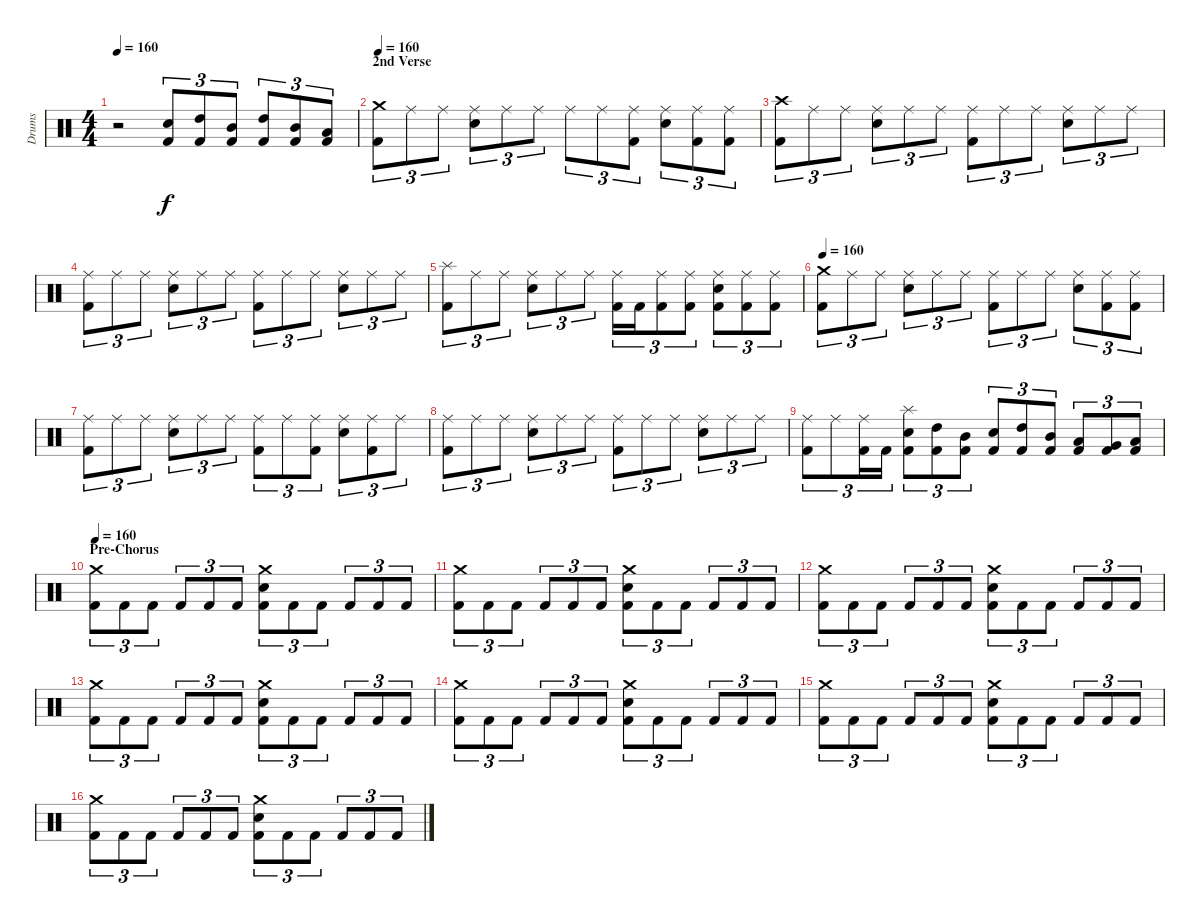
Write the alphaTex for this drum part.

\track ("Drums" "Drums") {instrument percussion}
\staff {score}
\articulation defaults
\ts (4 4)
\tempo 160
\clef neutral
\ks c
r.2{dy f} ("Kick (hit) 2" "Electric Snare (hit)").8{tu (3 2)} ("Kick (hit) 2" "High Tom (hit)").8{tu (3 2)} ("Kick (hit) 2" "Mid Tom (hit)").8{tu (3 2)} ("Kick (hit) 2" "High Tom (hit)").8{tu (3 2)} ("Kick (hit) 2" "Mid Tom (hit)").8{tu (3 2)} ("Kick (hit) 2" "Low Tom (hit)").8{tu (3 2)} |
\section ("" "2nd Verse")
\tempo 160
("Kick (hit) 2" "Crash medium (hit)").8{tu (3 2)} "Ride (middle)".8{tu (3 2)} "Ride (middle)".8{tu (3 2)} ("Electric Snare (hit)" "Ride (middle)").8{tu (3 2)} "Ride (middle)".8{tu (3 2)} "Ride (middle)".8{tu (3 2)} "Ride (middle)".8{tu (3 2)} "Ride (middle)".8{tu (3 2)} ("Kick (hit) 2" "Ride (middle)").8{tu (3 2)} ("Electric Snare (hit)" "Ride (middle)").8{tu (3 2)} ("Kick (hit) 2" "Ride (middle)").8{tu (3 2)} ("Kick (hit) 2" "Ride (middle)").8{tu (3 2)} |
("Kick (hit) 2" "Crash high (hit)").8{tu (3 2)} "Ride (middle)".8{tu (3 2)} "Ride (middle)".8{tu (3 2)} ("Electric Snare (hit)" "Ride (middle)").8{tu (3 2)} "Ride (middle)".8{tu (3 2)} "Ride (middle)".8{tu (3 2)} ("Kick (hit) 2" "Ride (middle)").8{tu (3 2)} "Ride (middle)".8{tu (3 2)} "Ride (middle)".8{tu (3 2)} ("Electric Snare (hit)" "Ride (middle)").8{tu (3 2)} "Ride (middle)".8{tu (3 2)} "Ride (middle)".8{tu (3 2)} |
("Kick (hit) 2" "Ride (middle)").8{tu (3 2)} "Ride (middle)".8{tu (3 2)} "Ride (middle)".8{tu (3 2)} ("Electric Snare (hit)" "Ride (middle)").8{tu (3 2)} "Ride (middle)".8{tu (3 2)} "Ride (middle)".8{tu (3 2)} ("Kick (hit) 2" "Ride (middle)").8{tu (3 2)} "Ride (middle)".8{tu (3 2)} "Ride (middle)".8{tu (3 2)} ("Electric Snare (hit)" "Ride (middle)").8{tu (3 2)} "Ride (middle)".8{tu (3 2)} "Ride (middle)".8{tu (3 2)} |
("Kick (hit) 2" "Splash (hit)").8{tu (3 2)} "Ride (middle)".8{tu (3 2)} "Ride (middle)".8{tu (3 2)} ("Electric Snare (hit)" "Ride (middle)").8{tu (3 2)} "Ride (middle)".8{tu (3 2)} "Ride (middle)".8{tu (3 2)} ("Kick (hit) 2" "Ride (middle)").16{tu (3 2)} "Kick (hit) 2".16{tu (3 2)} ("Kick (hit) 2" "Ride (middle)").8{tu (3 2)} ("Kick (hit) 2" "Ride (middle)").8{tu (3 2)} ("Kick (hit) 2" "Electric Snare (hit)" "Ride (middle)").8{tu (3 2)} ("Kick (hit) 2" "Ride (middle)").8{tu (3 2)} ("Kick (hit) 2" "Ride (middle)").8{tu (3 2)} |
\tempo 160
("Kick (hit) 2" "Crash medium (hit)").8{tu (3 2)} "Ride (middle)".8{tu (3 2)} "Ride (middle)".8{tu (3 2)} ("Electric Snare (hit)" "Ride (middle)").8{tu (3 2)} "Ride (middle)".8{tu (3 2)} "Ride (middle)".8{tu (3 2)} ("Kick (hit) 2" "Ride (middle)").8{tu (3 2)} "Ride (middle)".8{tu (3 2)} "Ride (middle)".8{tu (3 2)} ("Electric Snare (hit)" "Ride (middle)").8{tu (3 2)} ("Kick (hit) 2" "Ride (middle)").8{tu (3 2)} ("Kick (hit) 2" "Ride (middle)").8{tu (3 2)} |
("Kick (hit) 2" "Ride (middle)").8{tu (3 2)} "Ride (middle)".8{tu (3 2)} "Ride (middle)".8{tu (3 2)} ("Electric Snare (hit)" "Ride (middle)").8{tu (3 2)} "Ride (middle)".8{tu (3 2)} "Ride (middle)".8{tu (3 2)} ("Kick (hit) 2" "Ride (middle)").8{tu (3 2)} "Ride (middle)".8{tu (3 2)} ("Kick (hit) 2" "Ride (middle)").8{tu (3 2)} ("Electric Snare (hit)" "Ride (middle)").8{tu (3 2)} ("Kick (hit) 2" "Ride (middle)").8{tu (3 2)} "Ride (middle)".8{tu (3 2)} |
("Kick (hit) 2" "Ride (middle)").8{tu (3 2)} "Ride (middle)".8{tu (3 2)} "Ride (middle)".8{tu (3 2)} ("Electric Snare (hit)" "Ride (middle)").8{tu (3 2)} "Ride (middle)".8{tu (3 2)} "Ride (middle)".8{tu (3 2)} ("Kick (hit) 2" "Ride (middle)").8{tu (3 2)} "Ride (middle)".8{tu (3 2)} "Ride (middle)".8{tu (3 2)} ("Electric Snare (hit)" "Ride (middle)").8{tu (3 2)} "Ride (middle)".8{tu (3 2)} "Ride (middle)".8{tu (3 2)} |
("Kick (hit) 2" "Ride (middle)").8{tu (3 2)} "Ride (middle)".8{tu (3 2)} ("Kick (hit) 2" "Ride (middle)").16{tu (3 2)} "Kick (hit) 2".16{tu (3 2)} ("Kick (hit) 2" "Electric Snare (hit)" "Splash (hit)").8{tu (3 2)} ("Kick (hit) 2" "High Tom (hit)").8{tu (3 2)} ("Kick (hit) 2" "Mid Tom (hit)").8{tu (3 2)} ("Kick (hit) 2" "Electric Snare (hit)").8{tu (3 2)} ("Kick (hit) 2" "High Tom (hit)").8{tu (3 2)} ("Kick (hit) 2" "Mid Tom (hit)").8{tu (3 2)} ("Kick (hit) 2" "Low Tom (hit)").8{tu (3 2)} ("Kick (hit) 2" "Very Low Tom (hit)").8{tu (3 2)} ("Kick (hit) 2" "Low Floor Tom (hit)").8{tu (3 2)} |
\section ("" "Pre-Chorus")
\tempo 160
("Kick (hit) 2" "Crash medium (hit)").8{tu (3 2)} "Kick (hit) 2".8{tu (3 2)} "Kick (hit) 2".8{tu (3 2)} "Kick (hit) 2".8{tu (3 2)} "Kick (hit) 2".8{tu (3 2)} "Kick (hit) 2".8{tu (3 2)} ("Kick (hit) 2" "Electric Snare (hit)" "Crash medium (hit)").8{tu (3 2)} "Kick (hit) 2".8{tu (3 2)} "Kick (hit) 2".8{tu (3 2)} "Kick (hit) 2".8{tu (3 2)} "Kick (hit) 2".8{tu (3 2)} "Kick (hit) 2".8{tu (3 2)} |
("Kick (hit) 2" "Crash medium (hit)").8{tu (3 2)} "Kick (hit) 2".8{tu (3 2)} "Kick (hit) 2".8{tu (3 2)} "Kick (hit) 2".8{tu (3 2)} "Kick (hit) 2".8{tu (3 2)} "Kick (hit) 2".8{tu (3 2)} ("Kick (hit) 2" "Electric Snare (hit)" "Crash medium (hit)").8{tu (3 2)} "Kick (hit) 2".8{tu (3 2)} "Kick (hit) 2".8{tu (3 2)} "Kick (hit) 2".8{tu (3 2)} "Kick (hit) 2".8{tu (3 2)} "Kick (hit) 2".8{tu (3 2)} |
("Kick (hit) 2" "Crash medium (hit)").8{tu (3 2)} "Kick (hit) 2".8{tu (3 2)} "Kick (hit) 2".8{tu (3 2)} "Kick (hit) 2".8{tu (3 2)} "Kick (hit) 2".8{tu (3 2)} "Kick (hit) 2".8{tu (3 2)} ("Kick (hit) 2" "Electric Snare (hit)" "Crash medium (hit)").8{tu (3 2)} "Kick (hit) 2".8{tu (3 2)} "Kick (hit) 2".8{tu (3 2)} "Kick (hit) 2".8{tu (3 2)} "Kick (hit) 2".8{tu (3 2)} "Kick (hit) 2".8{tu (3 2)} |
("Kick (hit) 2" "Crash medium (hit)").8{tu (3 2)} "Kick (hit) 2".8{tu (3 2)} "Kick (hit) 2".8{tu (3 2)} "Kick (hit) 2".8{tu (3 2)} "Kick (hit) 2".8{tu (3 2)} "Kick (hit) 2".8{tu (3 2)} ("Kick (hit) 2" "Electric Snare (hit)" "Crash medium (hit)").8{tu (3 2)} "Kick (hit) 2".8{tu (3 2)} "Kick (hit) 2".8{tu (3 2)} "Kick (hit) 2".8{tu (3 2)} "Kick (hit) 2".8{tu (3 2)} "Kick (hit) 2".8{tu (3 2)} |
("Kick (hit) 2" "Crash medium (hit)").8{tu (3 2)} "Kick (hit) 2".8{tu (3 2)} "Kick (hit) 2".8{tu (3 2)} "Kick (hit) 2".8{tu (3 2)} "Kick (hit) 2".8{tu (3 2)} "Kick (hit) 2".8{tu (3 2)} ("Kick (hit) 2" "Electric Snare (hit)" "Crash medium (hit)").8{tu (3 2)} "Kick (hit) 2".8{tu (3 2)} "Kick (hit) 2".8{tu (3 2)} "Kick (hit) 2".8{tu (3 2)} "Kick (hit) 2".8{tu (3 2)} "Kick (hit) 2".8{tu (3 2)} |
("Kick (hit) 2" "Crash medium (hit)").8{tu (3 2)} "Kick (hit) 2".8{tu (3 2)} "Kick (hit) 2".8{tu (3 2)} "Kick (hit) 2".8{tu (3 2)} "Kick (hit) 2".8{tu (3 2)} "Kick (hit) 2".8{tu (3 2)} ("Kick (hit) 2" "Electric Snare (hit)" "Crash medium (hit)").8{tu (3 2)} "Kick (hit) 2".8{tu (3 2)} "Kick (hit) 2".8{tu (3 2)} "Kick (hit) 2".8{tu (3 2)} "Kick (hit) 2".8{tu (3 2)} "Kick (hit) 2".8{tu (3 2)} |
("Kick (hit) 2" "Crash medium (hit)").8{tu (3 2)} "Kick (hit) 2".8{tu (3 2)} "Kick (hit) 2".8{tu (3 2)} "Kick (hit) 2".8{tu (3 2)} "Kick (hit) 2".8{tu (3 2)} "Kick (hit) 2".8{tu (3 2)} ("Kick (hit) 2" "Electric Snare (hit)" "Crash medium (hit)").8{tu (3 2)} "Kick (hit) 2".8{tu (3 2)} "Kick (hit) 2".8{tu (3 2)} "Kick (hit) 2".8{tu (3 2)} "Kick (hit) 2".8{tu (3 2)} "Kick (hit) 2".8{tu (3 2)}
